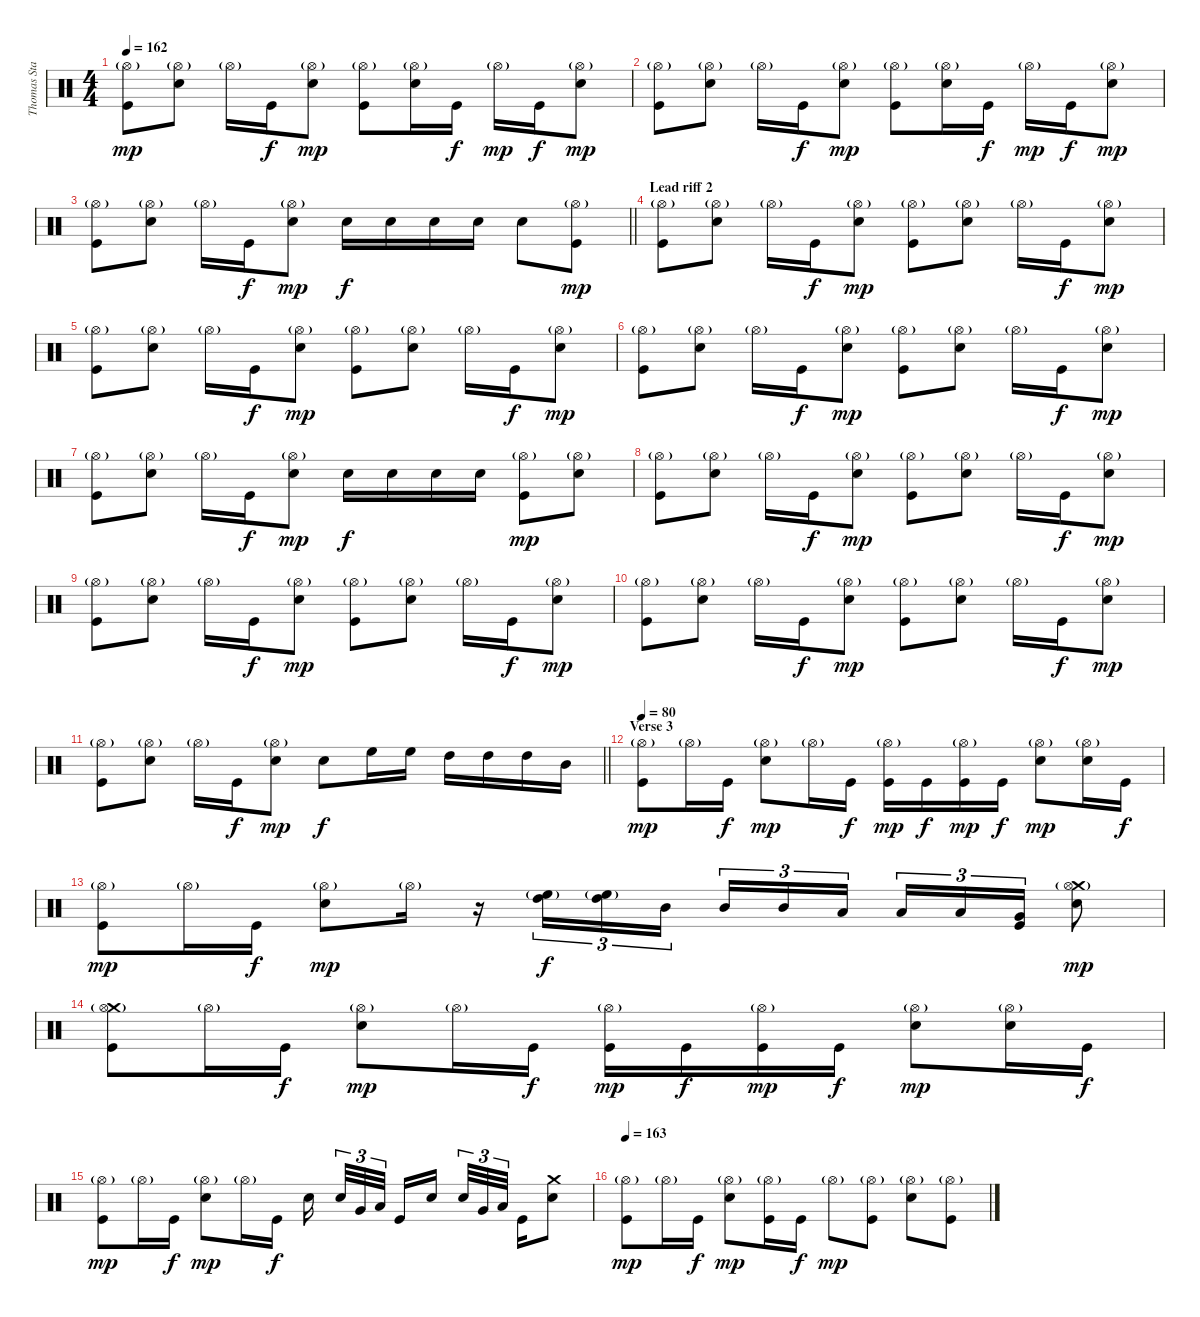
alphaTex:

\track ("Thomas Stauch" "Thomas Sta") {instrument percussion}
\staff {score}
\articulation defaults
\ts (4 4)
\tempo 162
\clef neutral
\ks c
("Hi-Hat (open)"{g} "Kick (hit)").8{dy mp} ("Hi-Hat (open)"{g} "Electric Snare (hit)").8 "Hi-Hat (open)"{g}.16 "Kick (hit)".16{dy f} ("Hi-Hat (open)"{g} "Electric Snare (hit)").8{dy mp} ("Hi-Hat (open)"{g} "Kick (hit)").8 ("Hi-Hat (open)"{g} "Electric Snare (hit)").16 "Kick (hit)".16{dy f} "Hi-Hat (open)"{g}.16{dy mp} "Kick (hit)".16{dy f} ("Hi-Hat (open)"{g} "Electric Snare (hit)").8{dy mp} |
("Hi-Hat (open)"{g} "Kick (hit)").8 ("Hi-Hat (open)"{g} "Electric Snare (hit)").8 "Hi-Hat (open)"{g}.16 "Kick (hit)".16{dy f} ("Hi-Hat (open)"{g} "Electric Snare (hit)").8{dy mp} ("Hi-Hat (open)"{g} "Kick (hit)").8 ("Hi-Hat (open)"{g} "Electric Snare (hit)").16 "Kick (hit)".16{dy f} "Hi-Hat (open)"{g}.16{dy mp} "Kick (hit)".16{dy f} ("Hi-Hat (open)"{g} "Electric Snare (hit)").8{dy mp} |
\barLineRight lightlight
("Hi-Hat (open)"{g} "Kick (hit)").8 ("Hi-Hat (open)"{g} "Electric Snare (hit)").8 "Hi-Hat (open)"{g}.16 "Kick (hit)".16{dy f} ("Hi-Hat (open)"{g} "Electric Snare (hit)").8{dy mp} "Electric Snare (hit)".16{dy f} "Electric Snare (hit)".16 "Electric Snare (hit)".16 "Electric Snare (hit)".16 "Electric Snare (hit)".8 ("Hi-Hat (open)"{g} "Kick (hit)").8{dy mp} |
\section ("" "Lead riff 2")
("Hi-Hat (open)"{g} "Kick (hit)").8 ("Hi-Hat (open)"{g} "Electric Snare (hit)").8 "Hi-Hat (open)"{g}.16 "Kick (hit)".16{dy f} ("Hi-Hat (open)"{g} "Electric Snare (hit)").8{dy mp} ("Hi-Hat (open)"{g} "Kick (hit)").8 ("Hi-Hat (open)"{g} "Electric Snare (hit)").8 "Hi-Hat (open)"{g}.16 "Kick (hit)".16{dy f} ("Hi-Hat (open)"{g} "Electric Snare (hit)").8{dy mp} |
("Hi-Hat (open)"{g} "Kick (hit)").8 ("Hi-Hat (open)"{g} "Electric Snare (hit)").8 "Hi-Hat (open)"{g}.16 "Kick (hit)".16{dy f} ("Hi-Hat (open)"{g} "Electric Snare (hit)").8{dy mp} ("Hi-Hat (open)"{g} "Kick (hit)").8 ("Hi-Hat (open)"{g} "Electric Snare (hit)").8 "Hi-Hat (open)"{g}.16 "Kick (hit)".16{dy f} ("Hi-Hat (open)"{g} "Electric Snare (hit)").8{dy mp} |
("Hi-Hat (open)"{g} "Kick (hit)").8 ("Hi-Hat (open)"{g} "Electric Snare (hit)").8 "Hi-Hat (open)"{g}.16 "Kick (hit)".16{dy f} ("Hi-Hat (open)"{g} "Electric Snare (hit)").8{dy mp} ("Hi-Hat (open)"{g} "Kick (hit)").8 ("Hi-Hat (open)"{g} "Electric Snare (hit)").8 "Hi-Hat (open)"{g}.16 "Kick (hit)".16{dy f} ("Hi-Hat (open)"{g} "Electric Snare (hit)").8{dy mp} |
("Hi-Hat (open)"{g} "Kick (hit)").8 ("Hi-Hat (open)"{g} "Electric Snare (hit)").8 "Hi-Hat (open)"{g}.16 "Kick (hit)".16{dy f} ("Hi-Hat (open)"{g} "Electric Snare (hit)").8{dy mp} "Electric Snare (hit)".16{dy f} "Electric Snare (hit)".16 "Electric Snare (hit)".16 "Electric Snare (hit)".16 ("Hi-Hat (open)"{g} "Kick (hit)").8{dy mp} ("Hi-Hat (open)"{g} "Electric Snare (hit)").8 |
("Hi-Hat (open)"{g} "Kick (hit)").8 ("Hi-Hat (open)"{g} "Electric Snare (hit)").8 "Hi-Hat (open)"{g}.16 "Kick (hit)".16{dy f} ("Hi-Hat (open)"{g} "Electric Snare (hit)").8{dy mp} ("Hi-Hat (open)"{g} "Kick (hit)").8 ("Hi-Hat (open)"{g} "Electric Snare (hit)").8 "Hi-Hat (open)"{g}.16 "Kick (hit)".16{dy f} ("Hi-Hat (open)"{g} "Electric Snare (hit)").8{dy mp} |
("Hi-Hat (open)"{g} "Kick (hit)").8 ("Hi-Hat (open)"{g} "Electric Snare (hit)").8 "Hi-Hat (open)"{g}.16 "Kick (hit)".16{dy f} ("Hi-Hat (open)"{g} "Electric Snare (hit)").8{dy mp} ("Hi-Hat (open)"{g} "Kick (hit)").8 ("Hi-Hat (open)"{g} "Electric Snare (hit)").8 "Hi-Hat (open)"{g}.16 "Kick (hit)".16{dy f} ("Hi-Hat (open)"{g} "Electric Snare (hit)").8{dy mp} |
("Hi-Hat (open)"{g} "Kick (hit)").8 ("Hi-Hat (open)"{g} "Electric Snare (hit)").8 "Hi-Hat (open)"{g}.16 "Kick (hit)".16{dy f} ("Hi-Hat (open)"{g} "Electric Snare (hit)").8{dy mp} ("Hi-Hat (open)"{g} "Kick (hit)").8 ("Hi-Hat (open)"{g} "Electric Snare (hit)").8 "Hi-Hat (open)"{g}.16 "Kick (hit)".16{dy f} ("Hi-Hat (open)"{g} "Electric Snare (hit)").8{dy mp} |
\barLineRight lightlight
("Hi-Hat (open)"{g} "Kick (hit)").8 ("Hi-Hat (open)"{g} "Electric Snare (hit)").8 "Hi-Hat (open)"{g}.16 "Kick (hit)".16{dy f} ("Hi-Hat (open)"{g} "Electric Snare (hit)").8{dy mp} "Electric Snare (hit)".8{dy f} "High Floor Tom (hit)".16 "High Floor Tom (hit)".16 "High Tom (hit)".16 "High Tom (hit)".16 "High Tom (hit)".16 "Mid Tom (hit)".16 |
\section ("" "Verse 3")
\tempo 80
("Hi-Hat (open)"{g} "Kick (hit)").8{dy mp} "Hi-Hat (open)"{g}.16 "Kick (hit)".16{dy f} ("Hi-Hat (open)"{g} "Electric Snare (hit)").8{dy mp} "Hi-Hat (open)"{g}.16 "Kick (hit)".16{dy f} ("Hi-Hat (open)"{g} "Kick (hit)").16{dy mp} "Kick (hit)".16{dy f} ("Hi-Hat (open)"{g} "Kick (hit)").16{dy mp} "Kick (hit)".16{dy f} ("Hi-Hat (open)"{g} "Electric Snare (hit)").8{dy mp} ("Hi-Hat (open)"{g} "Electric Snare (hit)").16 "Kick (hit)".16{dy f} |
("Hi-Hat (open)"{g} "Kick (hit)").8{dy mp} "Hi-Hat (open)"{g}.16 "Kick (hit)".16{dy f} ("Hi-Hat (open)"{g} "Electric Snare (hit)").8{dy mp} "Hi-Hat (open)"{g}.16 r.16 ("High Floor Tom (hit)"{g} "High Tom (hit)").16{tu (3 2) dy f} ("High Floor Tom (hit)"{g} "High Tom (hit)").16{tu (3 2)} "Mid Tom (hit)".16{tu (3 2) beam splitsecondary} "Mid Tom (hit)".16{tu (3 2)} "Mid Tom (hit)".16{tu (3 2)} "Low Tom (hit)".16{tu (3 2)} "Low Tom (hit)".16{tu (3 2)} "Low Tom (hit)".16{tu (3 2)} ("Very Low Tom (hit)" "Kick (hit)").16{tu (3 2)} ("Crash medium (hit)" "Hi-Hat (open)"{g} "Electric Snare (hit)").8{dy mp} |
("Crash medium (hit)" "Hi-Hat (open)"{g} "Kick (hit)").8 "Hi-Hat (open)"{g}.16 "Kick (hit)".16{dy f} ("Hi-Hat (open)"{g} "Electric Snare (hit)").8{dy mp} "Hi-Hat (open)"{g}.16 "Kick (hit)".16{dy f} ("Hi-Hat (open)"{g} "Kick (hit)").16{dy mp} "Kick (hit)".16{dy f} ("Hi-Hat (open)"{g} "Kick (hit)").16{dy mp} "Kick (hit)".16{dy f} ("Hi-Hat (open)"{g} "Electric Snare (hit)").8{dy mp} ("Hi-Hat (open)"{g} "Electric Snare (hit)").16 "Kick (hit)".16{dy f} |
("Hi-Hat (open)"{g} "Kick (hit)").8{dy mp} "Hi-Hat (open)"{g}.16 "Kick (hit)".16{dy f} ("Hi-Hat (open)"{g} "Electric Snare (hit)").8{dy mp} "Hi-Hat (open)"{g}.16 "Kick (hit)".16{dy f} "Electric Snare (hit)".16{beam splitsecondary} "Electric Snare (hit)".32{tu (3 2)} "Very Low Tom (hit)".32{tu (3 2)} "Low Floor Tom (hit)".32{tu (3 2) beam splitsecondary} "Kick (hit)".16 "Electric Snare (hit)".16 "Electric Snare (hit)".32{tu (3 2)} "Very Low Tom (hit)".32{tu (3 2)} "Low Floor Tom (hit)".32{tu (3 2) beam splitsecondary} "Kick (hit)".16 ("Crash medium (hit)" "Electric Snare (hit)").8 |
\tempo 163
("Hi-Hat (open)"{g} "Kick (hit)").8{dy mp} "Hi-Hat (open)"{g}.16 "Kick (hit)".16{dy f} ("Hi-Hat (open)"{g} "Electric Snare (hit)").8{dy mp} ("Hi-Hat (open)"{g} "Kick (hit)").16 "Kick (hit)".16{dy f} "Hi-Hat (open)"{g}.8{dy mp} ("Hi-Hat (open)"{g} "Kick (hit)").8 ("Hi-Hat (open)"{g} "Electric Snare (hit)").8 ("Hi-Hat (open)"{g} "Kick (hit)").8
